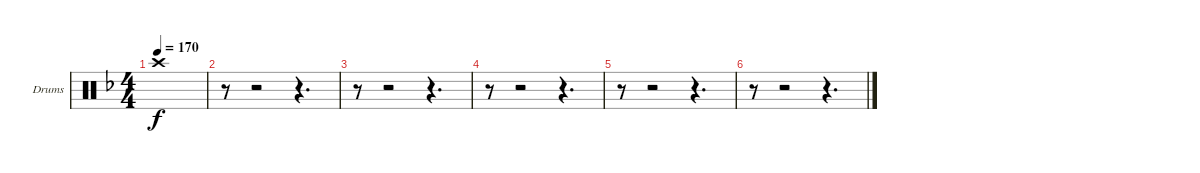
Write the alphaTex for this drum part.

\bracketExtendMode groupsimilarinstruments
\firstSystemTrackNameOrientation horizontal
\otherSystemsTrackNameOrientation horizontal
\track ("Drumkit" "Drums") {instrument percussion}
\staff {score}
\articulation defaults
\ts (4 4)
\tempo 170
\clef neutral
\scale
0.13242
\ks dminor "Crash high (hit)".1{dy f}
|
\scale
0.333333 r.8 r.2 r.4{d} |
\scale
0.333333 r.8 r.2 r.4{d} |
\scale
0.333333 r.8 r.2 r.4{d} |
\scale
0.5 r.8 r.2 r.4{d} |
\scale
0.5 r.8 r.2 r.4{d}
